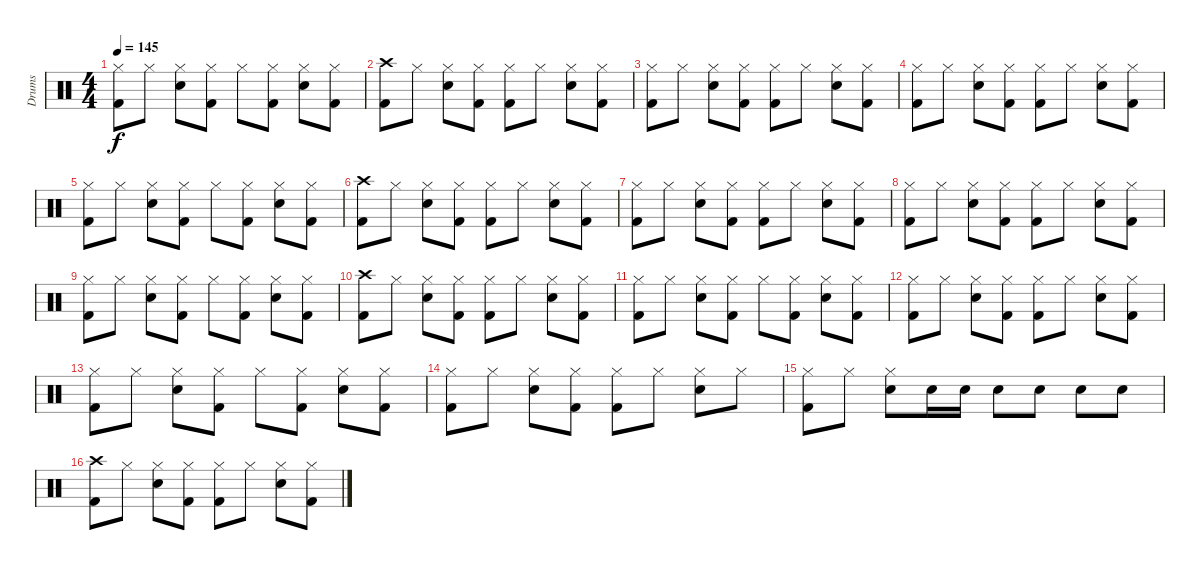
\track ("Drums" "Drums") {instrument percussion}
\staff {score}
\articulation defaults
\ts (4 4)
\tempo 145
\clef neutral
\ks c
("Hi-Hat (closed)" "Kick (hit) 2").8{dy f} "Hi-Hat (closed)".8 ("Hi-Hat (closed)" "Electric Snare (hit)").8 ("Hi-Hat (closed)" "Kick (hit) 2").8 "Hi-Hat (closed)".8 ("Hi-Hat (closed)" "Kick (hit) 2").8 ("Hi-Hat (closed)" "Electric Snare (hit)").8 ("Hi-Hat (closed)" "Kick (hit) 2").8 |
("Crash high (hit)" "Kick (hit) 2").8 "Hi-Hat (closed)".8 ("Hi-Hat (closed)" "Electric Snare (hit)").8 ("Hi-Hat (closed)" "Kick (hit) 2").8 ("Hi-Hat (closed)" "Kick (hit) 2").8 "Hi-Hat (closed)".8 ("Hi-Hat (closed)" "Electric Snare (hit)").8 ("Hi-Hat (closed)" "Kick (hit) 2").8 |
("Hi-Hat (closed)" "Kick (hit) 2").8 "Hi-Hat (closed)".8 ("Hi-Hat (closed)" "Electric Snare (hit)").8 ("Hi-Hat (closed)" "Kick (hit) 2").8 ("Hi-Hat (closed)" "Kick (hit) 2").8 "Hi-Hat (closed)".8 ("Hi-Hat (closed)" "Electric Snare (hit)").8 ("Hi-Hat (closed)" "Kick (hit) 2").8 |
("Hi-Hat (closed)" "Kick (hit) 2").8 "Hi-Hat (closed)".8 ("Hi-Hat (closed)" "Electric Snare (hit)").8 ("Hi-Hat (closed)" "Kick (hit) 2").8 ("Hi-Hat (closed)" "Kick (hit) 2").8 "Hi-Hat (closed)".8 ("Hi-Hat (closed)" "Electric Snare (hit)").8 ("Hi-Hat (closed)" "Kick (hit) 2").8 |
("Hi-Hat (closed)" "Kick (hit) 2").8 "Hi-Hat (closed)".8 ("Hi-Hat (closed)" "Electric Snare (hit)").8 ("Hi-Hat (closed)" "Kick (hit) 2").8 "Hi-Hat (closed)".8 ("Hi-Hat (closed)" "Kick (hit) 2").8 ("Hi-Hat (closed)" "Electric Snare (hit)").8 ("Hi-Hat (closed)" "Kick (hit) 2").8 |
("Crash high (hit)" "Kick (hit) 2").8 "Hi-Hat (closed)".8 ("Hi-Hat (closed)" "Electric Snare (hit)").8 ("Hi-Hat (closed)" "Kick (hit) 2").8 ("Hi-Hat (closed)" "Kick (hit) 2").8 "Hi-Hat (closed)".8 ("Hi-Hat (closed)" "Electric Snare (hit)").8 ("Hi-Hat (closed)" "Kick (hit) 2").8 |
("Hi-Hat (closed)" "Kick (hit) 2").8 "Hi-Hat (closed)".8 ("Hi-Hat (closed)" "Electric Snare (hit)").8 ("Hi-Hat (closed)" "Kick (hit) 2").8 ("Hi-Hat (closed)" "Kick (hit) 2").8 "Hi-Hat (closed)".8 ("Hi-Hat (closed)" "Electric Snare (hit)").8 ("Hi-Hat (closed)" "Kick (hit) 2").8 |
("Hi-Hat (closed)" "Kick (hit) 2").8 "Hi-Hat (closed)".8 ("Hi-Hat (closed)" "Electric Snare (hit)").8 ("Hi-Hat (closed)" "Kick (hit) 2").8 ("Hi-Hat (closed)" "Kick (hit) 2").8 "Hi-Hat (closed)".8 ("Hi-Hat (closed)" "Electric Snare (hit)").8 ("Hi-Hat (closed)" "Kick (hit) 2").8 |
("Hi-Hat (closed)" "Kick (hit) 2").8 "Hi-Hat (closed)".8 ("Hi-Hat (closed)" "Electric Snare (hit)").8 ("Hi-Hat (closed)" "Kick (hit) 2").8 "Hi-Hat (closed)".8 ("Hi-Hat (closed)" "Kick (hit) 2").8 ("Hi-Hat (closed)" "Electric Snare (hit)").8 ("Hi-Hat (closed)" "Kick (hit) 2").8 |
("Crash high (hit)" "Kick (hit) 2").8 "Hi-Hat (closed)".8 ("Hi-Hat (closed)" "Electric Snare (hit)").8 ("Hi-Hat (closed)" "Kick (hit) 2").8 ("Hi-Hat (closed)" "Kick (hit) 2").8 "Hi-Hat (closed)".8 ("Hi-Hat (closed)" "Electric Snare (hit)").8 ("Hi-Hat (closed)" "Kick (hit) 2").8 |
("Hi-Hat (closed)" "Kick (hit) 2").8 "Hi-Hat (closed)".8 ("Hi-Hat (closed)" "Electric Snare (hit)").8 ("Hi-Hat (closed)" "Kick (hit) 2").8 "Hi-Hat (closed)".8 ("Hi-Hat (closed)" "Kick (hit) 2").8 ("Hi-Hat (closed)" "Electric Snare (hit)").8 ("Hi-Hat (closed)" "Kick (hit) 2").8 |
("Hi-Hat (closed)" "Kick (hit) 2").8 "Hi-Hat (closed)".8 ("Hi-Hat (closed)" "Electric Snare (hit)").8 ("Hi-Hat (closed)" "Kick (hit) 2").8 ("Hi-Hat (closed)" "Kick (hit) 2").8 "Hi-Hat (closed)".8 ("Hi-Hat (closed)" "Electric Snare (hit)").8 ("Hi-Hat (closed)" "Kick (hit) 2").8 |
("Hi-Hat (closed)" "Kick (hit) 2").8 "Hi-Hat (closed)".8 ("Hi-Hat (closed)" "Electric Snare (hit)").8 ("Hi-Hat (closed)" "Kick (hit) 2").8 "Hi-Hat (closed)".8 ("Hi-Hat (closed)" "Kick (hit) 2").8 ("Hi-Hat (closed)" "Electric Snare (hit)").8 ("Hi-Hat (closed)" "Kick (hit) 2").8 |
("Hi-Hat (closed)" "Kick (hit) 2").8 "Hi-Hat (closed)".8 ("Hi-Hat (closed)" "Electric Snare (hit)").8 ("Hi-Hat (closed)" "Kick (hit) 2").8 ("Hi-Hat (closed)" "Kick (hit) 2").8 "Hi-Hat (closed)".8 ("Hi-Hat (closed)" "Electric Snare (hit)").8 "Hi-Hat (closed)".8 |
("Hi-Hat (closed)" "Kick (hit) 2").8 "Hi-Hat (closed)".8 ("Hi-Hat (closed)" "Electric Snare (hit)").8 "Electric Snare (hit)".16 "Electric Snare (hit)".16 "Electric Snare (hit)".8 "Electric Snare (hit)".8 "Electric Snare (hit)".8 "Electric Snare (hit)".8 |
("Crash high (hit)" "Kick (hit) 2").8 "Hi-Hat (closed)".8 ("Hi-Hat (closed)" "Electric Snare (hit)").8 ("Hi-Hat (closed)" "Kick (hit) 2").8 ("Hi-Hat (closed)" "Kick (hit) 2").8 "Hi-Hat (closed)".8 ("Hi-Hat (closed)" "Electric Snare (hit)").8 ("Hi-Hat (closed)" "Kick (hit) 2").8
